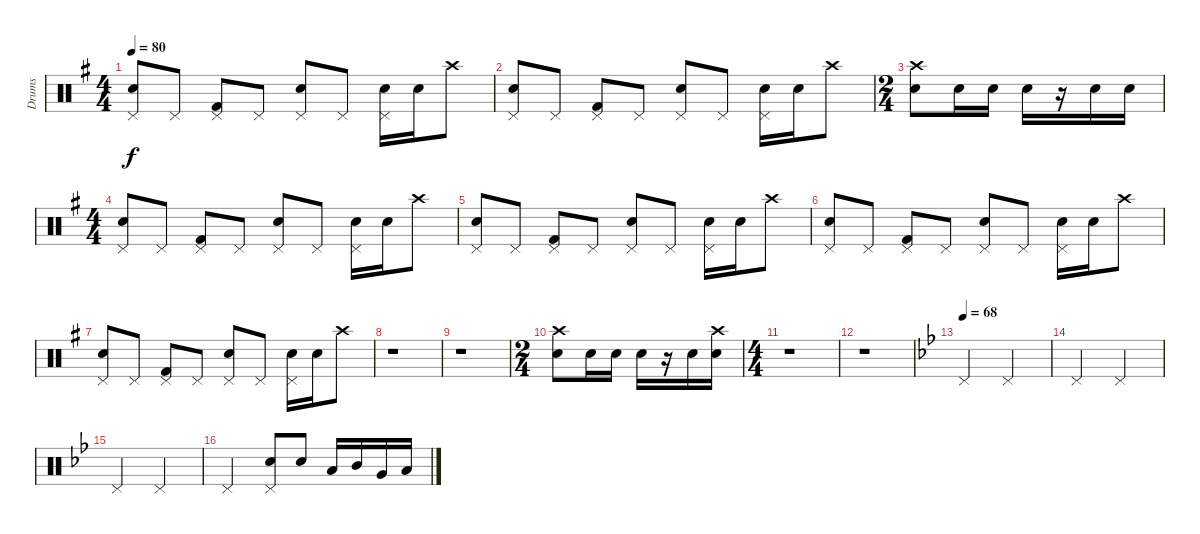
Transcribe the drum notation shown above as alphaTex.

\track ("Drums" "Drums") {instrument percussion}
\staff {score}
\articulation defaults
\ts (4 4)
\tempo 80
\clef neutral
\ks eminor
("Pedal Hi-Hat (hit)" "Snare (hit) 2").8{dy f} "Pedal Hi-Hat (hit)".8 ("Pedal Hi-Hat (hit)" "Kick (hit) 2").8 "Pedal Hi-Hat (hit)".8 ("Pedal Hi-Hat (hit)" "Snare (hit) 2").8 "Pedal Hi-Hat (hit)".8 ("Pedal Hi-Hat (hit)" "Snare (hit) 2").16 "Snare (hit) 2".16 "Crash high (hit)".8 |
("Pedal Hi-Hat (hit)" "Snare (hit) 2").8 "Pedal Hi-Hat (hit)".8 ("Pedal Hi-Hat (hit)" "Kick (hit) 2").8 "Pedal Hi-Hat (hit)".8 ("Pedal Hi-Hat (hit)" "Snare (hit) 2").8 "Pedal Hi-Hat (hit)".8 ("Pedal Hi-Hat (hit)" "Snare (hit) 2").16 "Snare (hit) 2".16 "Crash high (hit)".8 |
\ts (2 4)
("Snare (hit) 2" "Crash high (hit)").8 "Snare (hit) 2".16 "Snare (hit) 2".16 "Snare (hit) 2".16 r.16 "Snare (hit) 2".16 "Snare (hit) 2".16 |
\ts (4 4)
("Pedal Hi-Hat (hit)" "Snare (hit) 2").8 "Pedal Hi-Hat (hit)".8 ("Pedal Hi-Hat (hit)" "Kick (hit) 2").8 "Pedal Hi-Hat (hit)".8 ("Pedal Hi-Hat (hit)" "Snare (hit) 2").8 "Pedal Hi-Hat (hit)".8 ("Pedal Hi-Hat (hit)" "Snare (hit) 2").16 "Snare (hit) 2".16 "Crash high (hit)".8 |
("Pedal Hi-Hat (hit)" "Snare (hit) 2").8 "Pedal Hi-Hat (hit)".8 ("Pedal Hi-Hat (hit)" "Kick (hit) 2").8 "Pedal Hi-Hat (hit)".8 ("Pedal Hi-Hat (hit)" "Snare (hit) 2").8 "Pedal Hi-Hat (hit)".8 ("Pedal Hi-Hat (hit)" "Snare (hit) 2").16 "Snare (hit) 2".16 "Crash high (hit)".8 |
("Pedal Hi-Hat (hit)" "Snare (hit) 2").8 "Pedal Hi-Hat (hit)".8 ("Pedal Hi-Hat (hit)" "Kick (hit) 2").8 "Pedal Hi-Hat (hit)".8 ("Pedal Hi-Hat (hit)" "Snare (hit) 2").8 "Pedal Hi-Hat (hit)".8 ("Pedal Hi-Hat (hit)" "Snare (hit) 2").16 "Snare (hit) 2".16 "Crash high (hit)".8 |
("Pedal Hi-Hat (hit)" "Snare (hit) 2").8 "Pedal Hi-Hat (hit)".8 ("Pedal Hi-Hat (hit)" "Kick (hit) 2").8 "Pedal Hi-Hat (hit)".8 ("Pedal Hi-Hat (hit)" "Snare (hit) 2").8 "Pedal Hi-Hat (hit)".8 ("Pedal Hi-Hat (hit)" "Snare (hit) 2").16 "Snare (hit) 2".16 "Crash high (hit)".8 |
r.1 |
r.1 |
\ts (2 4)
("Snare (hit) 2" "Crash high (hit)").8 "Snare (hit) 2".16 "Snare (hit) 2".16 "Snare (hit) 2".16 r.16 "Snare (hit) 2".16 ("Snare (hit) 2" "Crash high (hit)").16 |
\ts (4 4)
r.1 |
r.1 |
\tempo 68
\ks gminor "Pedal Hi-Hat (hit)".2 "Pedal Hi-Hat (hit)".2
|
"Pedal Hi-Hat (hit)".2 "Pedal Hi-Hat (hit)".2 |
"Pedal Hi-Hat (hit)".2 "Pedal Hi-Hat (hit)".2 |
"Pedal Hi-Hat (hit)".2 ("Pedal Hi-Hat (hit)" "Snare (hit) 2").8 "Snare (hit) 2".8 "Low Tom (hit)".16 "Mid Tom (hit)".16 "Very Low Tom (hit)".16 "Low Floor Tom (hit)".16
